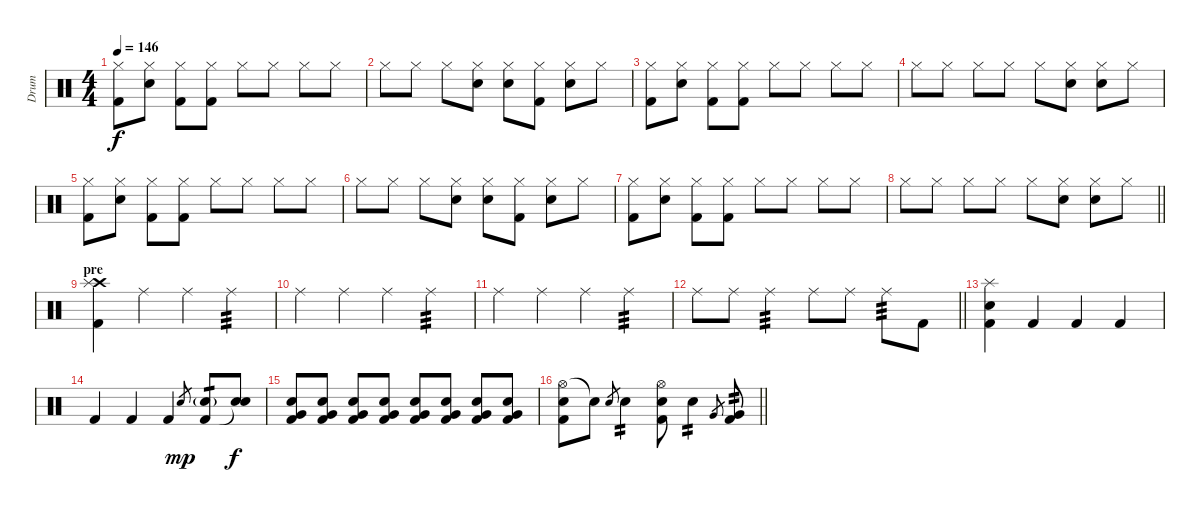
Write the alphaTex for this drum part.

\track ("Drum" "Drum") {instrument percussion}
\staff {score}
\articulation defaults
\ts (4 4)
\tempo 146
\clef neutral
\ks c
("Hi-Hat (closed)" "Kick (hit) 2").8{dy f} ("Hi-Hat (closed)" "Electric Snare (hit)").8 ("Hi-Hat (closed)" "Kick (hit) 2").8 ("Hi-Hat (closed)" "Kick (hit) 2").8 "Hi-Hat (closed)".8 "Hi-Hat (closed)".8 "Hi-Hat (closed)".8 "Hi-Hat (closed)".8 |
"Hi-Hat (closed)".8 "Hi-Hat (closed)".8 "Hi-Hat (closed)".8 ("Hi-Hat (closed)" "Electric Snare (hit)").8 ("Hi-Hat (closed)" "Electric Snare (hit)").8 ("Hi-Hat (closed)" "Kick (hit) 2").8 ("Hi-Hat (closed)" "Electric Snare (hit)").8 "Hi-Hat (closed)".8 |
("Hi-Hat (closed)" "Kick (hit) 2").8 ("Hi-Hat (closed)" "Electric Snare (hit)").8 ("Hi-Hat (closed)" "Kick (hit) 2").8 ("Hi-Hat (closed)" "Kick (hit) 2").8 "Hi-Hat (closed)".8 "Hi-Hat (closed)".8 "Hi-Hat (closed)".8 "Hi-Hat (closed)".8 |
"Hi-Hat (closed)".8 "Hi-Hat (closed)".8 "Hi-Hat (closed)".8 "Hi-Hat (closed)".8 "Hi-Hat (closed)".8 ("Hi-Hat (closed)" "Electric Snare (hit)").8 ("Hi-Hat (closed)" "Electric Snare (hit)").8 "Hi-Hat (closed)".8 |
("Hi-Hat (closed)" "Kick (hit) 2").8 ("Hi-Hat (closed)" "Electric Snare (hit)").8 ("Hi-Hat (closed)" "Kick (hit) 2").8 ("Hi-Hat (closed)" "Kick (hit) 2").8 "Hi-Hat (closed)".8 "Hi-Hat (closed)".8 "Hi-Hat (closed)".8 "Hi-Hat (closed)".8 |
"Hi-Hat (closed)".8 "Hi-Hat (closed)".8 "Hi-Hat (closed)".8 ("Hi-Hat (closed)" "Electric Snare (hit)").8 ("Hi-Hat (closed)" "Electric Snare (hit)").8 ("Hi-Hat (closed)" "Kick (hit) 2").8 ("Hi-Hat (closed)" "Electric Snare (hit)").8 "Hi-Hat (closed)".8 |
("Hi-Hat (closed)" "Kick (hit) 2").8 ("Hi-Hat (closed)" "Electric Snare (hit)").8 ("Hi-Hat (closed)" "Kick (hit) 2").8 ("Hi-Hat (closed)" "Kick (hit) 2").8 "Hi-Hat (closed)".8 "Hi-Hat (closed)".8 "Hi-Hat (closed)".8 "Hi-Hat (closed)".8 |
\barLineRight lightlight "Hi-Hat (closed)".8 "Hi-Hat (closed)".8 "Hi-Hat (closed)".8 "Hi-Hat (closed)".8 "Hi-Hat (closed)".8
("Hi-Hat (closed)" "Electric Snare (hit)").8 ("Hi-Hat (closed)" "Electric Snare (hit)").8 "Hi-Hat (closed)".8 |
\section ("" "pre")
("Crash high (hit)" "Splash (hit)" "Kick (hit) 2").4 "Ride (middle)".4 "Ride (middle)".4 "Ride (middle)".4{tp 3} |
"Ride (middle)".4 "Ride (middle)".4 "Ride (middle)".4 "Ride (middle)".4{tp 3} |
"Ride (middle)".4 "Ride (middle)".4 "Ride (middle)".4 "Ride (middle)".4{tp 3} |
\barLineRight lightlight "Ride (middle)".8 "Ride (middle)".8 "Ride (middle)".4{tp 3} "Ride (middle)".8 "Ride (middle)".8 "Ride (middle)".8{tp 3} "Kick (hit) 2".8
|
("Splash (hit)" "Electric Snare (hit)" "Kick (hit) 2").4 "Kick (hit) 2".4 "Kick (hit) 2".4 "Kick (hit) 2".4 |
"Kick (hit) 2".4 "Kick (hit) 2".4 "Kick (hit) 2".4 "Electric Snare (hit)".8{gr dy mp} ("Electric Snare (hit)"{g} "Kick (hit) 2").8{tp 1} ("Electric Snare (hit)" "Snare (hit)"{t}).8{dy f} |
("Electric Snare (hit)" "Very Low Tom (hit)" "Kick (hit) 2").8 ("Electric Snare (hit)" "Very Low Tom (hit)" "Kick (hit) 2").8 ("Electric Snare (hit)" "Very Low Tom (hit)" "Kick (hit) 2").8 ("Electric Snare (hit)" "Very Low Tom (hit)" "Kick (hit) 2").8 ("Electric Snare (hit)" "Very Low Tom (hit)" "Kick (hit) 2").8 ("Electric Snare (hit)" "Very Low Tom (hit)" "Kick (hit) 2").8 ("Electric Snare (hit)" "Very Low Tom (hit)" "Kick (hit) 2").8 ("Electric Snare (hit)" "Very Low Tom (hit)" "Kick (hit) 2").8 |
\barLineRight lightlight
("Hi-Hat (open)" "Electric Snare (hit)" "Kick (hit) 2").8 "Snare (hit)"{t}.8 "Electric Snare (hit)".8{gr} "Electric Snare (hit)".4{tp 2} ("Hi-Hat (open)" "Electric Snare (hit)" "Kick (hit) 2").8 "Electric Snare (hit)".4{tp 2} "Very Low Tom (hit)".8{gr} ("Very Low Tom (hit)" "Kick (hit) 2").8{tp 2}
